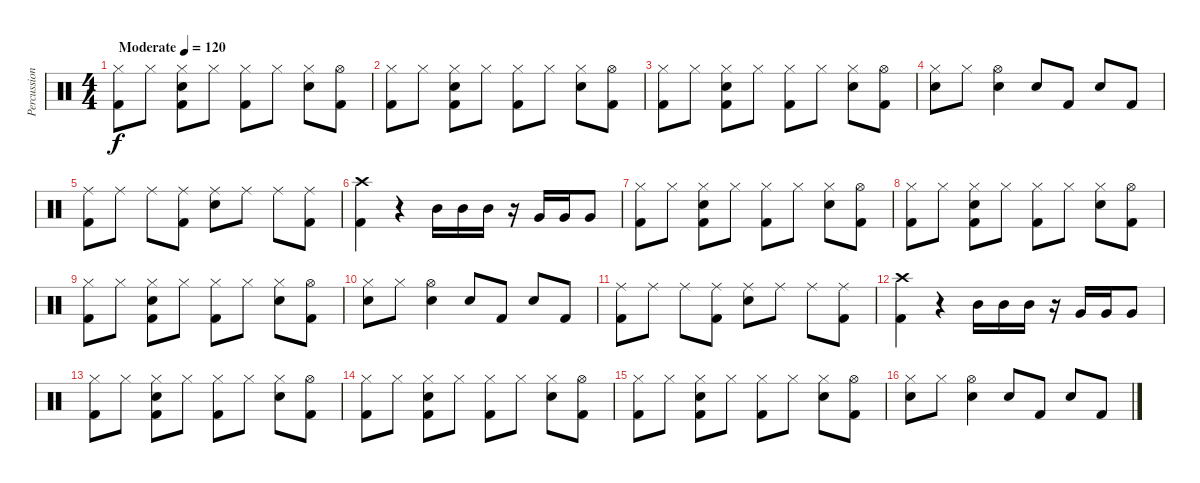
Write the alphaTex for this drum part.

\track ("Percussions" "Percussion") {instrument percussion}
\staff {score}
\articulation defaults
\ts (4 4)
\tempo (120 "Moderate")
\clef neutral
\ks c
("Hi-Hat (closed)" "Kick (hit) 2").8{dy f} "Hi-Hat (closed)".8 ("Hi-Hat (closed)" "Snare (hit) 2" "Kick (hit) 2").8 "Hi-Hat (closed)".8 ("Hi-Hat (closed)" "Kick (hit) 2").8 "Hi-Hat (closed)".8 ("Hi-Hat (closed)" "Snare (hit) 2").8 ("Hi-Hat (open)" "Kick (hit) 2").8 |
("Hi-Hat (closed)" "Kick (hit) 2").8 "Hi-Hat (closed)".8 ("Hi-Hat (closed)" "Snare (hit) 2" "Kick (hit) 2").8 "Hi-Hat (closed)".8 ("Hi-Hat (closed)" "Kick (hit) 2").8 "Hi-Hat (closed)".8 ("Hi-Hat (closed)" "Snare (hit) 2").8 ("Hi-Hat (open)" "Kick (hit) 2").8 |
("Hi-Hat (closed)" "Kick (hit) 2").8 "Hi-Hat (closed)".8 ("Hi-Hat (closed)" "Snare (hit) 2" "Kick (hit) 2").8 "Hi-Hat (closed)".8 ("Hi-Hat (closed)" "Kick (hit) 2").8 "Hi-Hat (closed)".8 ("Hi-Hat (closed)" "Snare (hit) 2").8 ("Hi-Hat (open)" "Kick (hit) 2").8 |
("Hi-Hat (closed)" "Snare (hit) 2").8 "Hi-Hat (closed)".8 ("Hi-Hat (open)" "Snare (hit) 2").4 "Snare (hit) 2".8 "Kick (hit) 2".8 "Snare (hit) 2".8 "Kick (hit) 2".8 |
("Ride (middle)" "Kick (hit) 2").8 "Ride (middle)".8 "Ride (middle)".8 ("Ride (middle)" "Kick (hit) 2").8 ("Ride (middle)" "Snare (hit) 2").8 "Ride (middle)".8 "Ride (middle)".8 ("Ride (middle)" "Kick (hit) 2").8 |
("Crash high (hit)" "Kick (hit) 2").4 r.4 "Mid Tom (hit)".16 "Mid Tom (hit)".16 "Mid Tom (hit)".16 r.16 "Very Low Tom (hit)".16 "Very Low Tom (hit)".16 "Very Low Tom (hit)".8 |
("Hi-Hat (closed)" "Kick (hit) 2").8 "Hi-Hat (closed)".8 ("Hi-Hat (closed)" "Snare (hit) 2" "Kick (hit) 2").8 "Hi-Hat (closed)".8 ("Hi-Hat (closed)" "Kick (hit) 2").8 "Hi-Hat (closed)".8 ("Hi-Hat (closed)" "Snare (hit) 2").8 ("Hi-Hat (open)" "Kick (hit) 2").8 |
("Hi-Hat (closed)" "Kick (hit) 2").8 "Hi-Hat (closed)".8 ("Hi-Hat (closed)" "Snare (hit) 2" "Kick (hit) 2").8 "Hi-Hat (closed)".8 ("Hi-Hat (closed)" "Kick (hit) 2").8 "Hi-Hat (closed)".8 ("Hi-Hat (closed)" "Snare (hit) 2").8 ("Hi-Hat (open)" "Kick (hit) 2").8 |
("Hi-Hat (closed)" "Kick (hit) 2").8 "Hi-Hat (closed)".8 ("Hi-Hat (closed)" "Snare (hit) 2" "Kick (hit) 2").8 "Hi-Hat (closed)".8 ("Hi-Hat (closed)" "Kick (hit) 2").8 "Hi-Hat (closed)".8 ("Hi-Hat (closed)" "Snare (hit) 2").8 ("Hi-Hat (open)" "Kick (hit) 2").8 |
("Hi-Hat (closed)" "Snare (hit) 2").8 "Hi-Hat (closed)".8 ("Hi-Hat (open)" "Snare (hit) 2").4 "Snare (hit) 2".8 "Kick (hit) 2".8 "Snare (hit) 2".8 "Kick (hit) 2".8 |
("Ride (middle)" "Kick (hit) 2").8 "Ride (middle)".8 "Ride (middle)".8 ("Ride (middle)" "Kick (hit) 2").8 ("Ride (middle)" "Snare (hit) 2").8 "Ride (middle)".8 "Ride (middle)".8 ("Ride (middle)" "Kick (hit) 2").8 |
("Crash high (hit)" "Kick (hit) 2").4 r.4 "Mid Tom (hit)".16 "Mid Tom (hit)".16 "Mid Tom (hit)".16 r.16 "Very Low Tom (hit)".16 "Very Low Tom (hit)".16 "Very Low Tom (hit)".8 |
("Hi-Hat (closed)" "Kick (hit) 2").8 "Hi-Hat (closed)".8 ("Hi-Hat (closed)" "Snare (hit) 2" "Kick (hit) 2").8 "Hi-Hat (closed)".8 ("Hi-Hat (closed)" "Kick (hit) 2").8 "Hi-Hat (closed)".8 ("Hi-Hat (closed)" "Snare (hit) 2").8 ("Hi-Hat (open)" "Kick (hit) 2").8 |
("Hi-Hat (closed)" "Kick (hit) 2").8 "Hi-Hat (closed)".8 ("Hi-Hat (closed)" "Snare (hit) 2" "Kick (hit) 2").8 "Hi-Hat (closed)".8 ("Hi-Hat (closed)" "Kick (hit) 2").8 "Hi-Hat (closed)".8 ("Hi-Hat (closed)" "Snare (hit) 2").8 ("Hi-Hat (open)" "Kick (hit) 2").8 |
("Hi-Hat (closed)" "Kick (hit) 2").8 "Hi-Hat (closed)".8 ("Hi-Hat (closed)" "Snare (hit) 2" "Kick (hit) 2").8 "Hi-Hat (closed)".8 ("Hi-Hat (closed)" "Kick (hit) 2").8 "Hi-Hat (closed)".8 ("Hi-Hat (closed)" "Snare (hit) 2").8 ("Hi-Hat (open)" "Kick (hit) 2").8 |
("Hi-Hat (closed)" "Snare (hit) 2").8 "Hi-Hat (closed)".8 ("Hi-Hat (open)" "Snare (hit) 2").4 "Snare (hit) 2".8 "Kick (hit) 2".8 "Snare (hit) 2".8 "Kick (hit) 2".8
